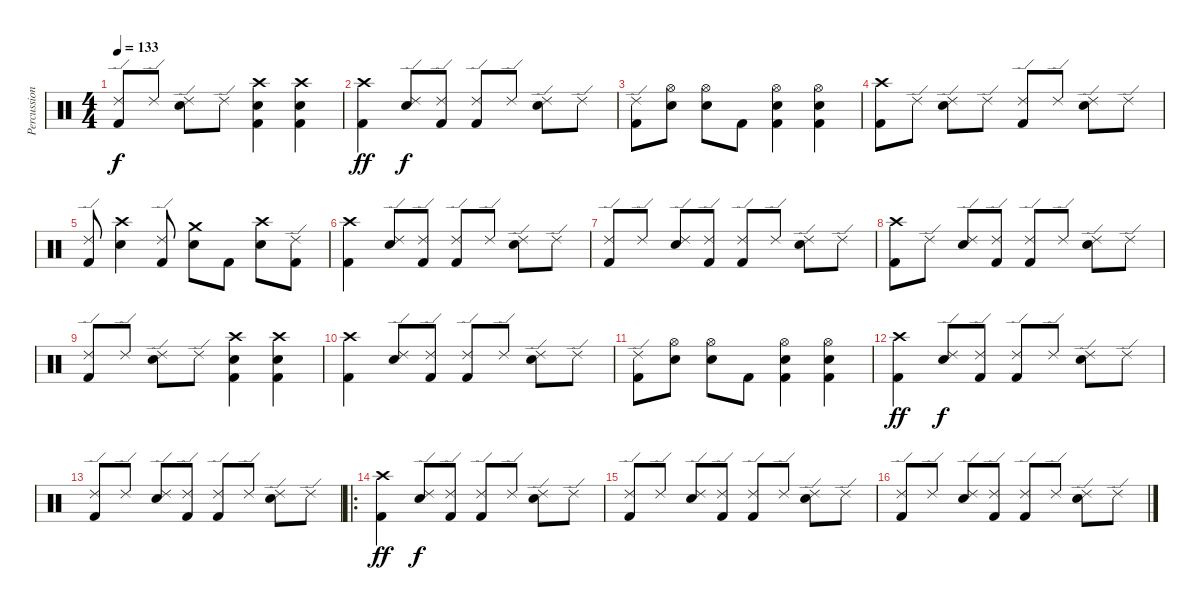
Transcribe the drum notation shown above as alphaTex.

\track ("Percussion" "Percussion") {instrument percussion}
\staff {score}
\articulation defaults
\ts (4 4)
\tempo 133
\clef neutral
\ks c
("Ride (edge) 2" "Kick (hit) 2").8{dy f} "Ride (edge) 2".8 ("Ride (edge) 2" "Snare (hit) 2").8 "Ride (edge) 2".8 ("Crash high (hit)" "Snare (hit) 2" "Kick (hit) 2").4 ("Crash high (hit)" "Snare (hit) 2" "Kick (hit) 2").4 |
("Crash high (hit)" "Kick (hit) 2").4{dy ff} ("Ride (edge) 2" "Snare (hit) 2").8{dy f} ("Ride (edge) 2" "Kick (hit) 2").8 ("Ride (edge) 2" "Kick (hit) 2").8 "Ride (edge) 2".8 ("Ride (edge) 2" "Snare (hit) 2").8 "Ride (edge) 2".8 |
("Ride (edge) 2" "Kick (hit) 2").8 ("Hi-Hat (open)" "Snare (hit) 2").8 ("Hi-Hat (open)" "Snare (hit) 2").8 "Kick (hit) 2".8 ("Hi-Hat (open)" "Snare (hit) 2" "Kick (hit) 2").4 ("Hi-Hat (open)" "Snare (hit) 2" "Kick (hit) 2").4 |
("Crash high (hit)" "Kick (hit) 2").8 "Ride (edge) 2".8 ("Ride (edge) 2" "Snare (hit) 2").8 "Ride (edge) 2".8 ("Ride (edge) 2" "Kick (hit) 2").8 "Ride (edge) 2".8 ("Ride (edge) 2" "Snare (hit) 2").8 "Ride (edge) 2".8 |
("Ride (edge) 2" "Kick (hit) 2").8 ("Crash high (hit)" "Snare (hit) 2").4 ("Ride (edge) 2" "Kick (hit) 2").8 ("Crash medium (hit)" "Snare (hit) 2").8 "Kick (hit) 2".8 ("Crash high (hit)" "Snare (hit) 2").8 ("Ride (edge) 2" "Kick (hit) 2").8 |
("Crash high (hit)" "Kick (hit) 2").4 ("Ride (edge) 2" "Snare (hit) 2").8 ("Ride (edge) 2" "Kick (hit) 2").8 ("Ride (edge) 2" "Kick (hit) 2").8 "Ride (edge) 2".8 ("Ride (edge) 2" "Snare (hit) 2").8 "Ride (edge) 2".8 |
("Ride (edge) 2" "Kick (hit) 2").8 "Ride (edge) 2".8 ("Ride (edge) 2" "Snare (hit) 2").8 ("Ride (edge) 2" "Kick (hit) 2").8 ("Ride (edge) 2" "Kick (hit) 2").8 "Ride (edge) 2".8 ("Ride (edge) 2" "Snare (hit) 2").8 "Ride (edge) 2".8 |
("Crash high (hit)" "Kick (hit) 2").8 "Ride (edge) 2".8 ("Ride (edge) 2" "Snare (hit) 2").8 ("Ride (edge) 2" "Kick (hit) 2").8 ("Ride (edge) 2" "Kick (hit) 2").8 "Ride (edge) 2".8 ("Ride (edge) 2" "Snare (hit) 2").8 "Ride (edge) 2".8 |
("Ride (edge) 2" "Kick (hit) 2").8 "Ride (edge) 2".8 ("Ride (edge) 2" "Snare (hit) 2").8 "Ride (edge) 2".8 ("Crash high (hit)" "Snare (hit) 2" "Kick (hit) 2").4 ("Crash high (hit)" "Snare (hit) 2" "Kick (hit) 2").4 |
("Crash high (hit)" "Kick (hit) 2").4 ("Ride (edge) 2" "Snare (hit) 2").8 ("Ride (edge) 2" "Kick (hit) 2").8 ("Ride (edge) 2" "Kick (hit) 2").8 "Ride (edge) 2".8 ("Ride (edge) 2" "Snare (hit) 2").8 "Ride (edge) 2".8 |
("Ride (edge) 2" "Kick (hit) 2").8 ("Hi-Hat (open)" "Snare (hit) 2").8 ("Hi-Hat (open)" "Snare (hit) 2").8 "Kick (hit) 2".8 ("Hi-Hat (open)" "Snare (hit) 2" "Kick (hit) 2").4 ("Hi-Hat (open)" "Snare (hit) 2" "Kick (hit) 2").4 |
("Crash high (hit)" "Kick (hit) 2").4{dy ff} ("Ride (edge) 2" "Snare (hit) 2").8{dy f} ("Ride (edge) 2" "Kick (hit) 2").8 ("Ride (edge) 2" "Kick (hit) 2").8 "Ride (edge) 2".8 ("Ride (edge) 2" "Snare (hit) 2").8 "Ride (edge) 2".8 |
("Ride (edge) 2" "Kick (hit) 2").8 "Ride (edge) 2".8 ("Ride (edge) 2" "Snare (hit) 2").8 ("Ride (edge) 2" "Kick (hit) 2").8 ("Ride (edge) 2" "Kick (hit) 2").8 "Ride (edge) 2".8 ("Ride (edge) 2" "Snare (hit) 2").8 "Ride (edge) 2".8 |
\ro
("Crash high (hit)" "Kick (hit) 2").4{dy ff} ("Ride (edge) 2" "Snare (hit) 2").8{dy f} ("Ride (edge) 2" "Kick (hit) 2").8 ("Ride (edge) 2" "Kick (hit) 2").8 "Ride (edge) 2".8 ("Ride (edge) 2" "Snare (hit) 2").8 "Ride (edge) 2".8 |
("Ride (edge) 2" "Kick (hit) 2").8 "Ride (edge) 2".8 ("Ride (edge) 2" "Snare (hit) 2").8 ("Ride (edge) 2" "Kick (hit) 2").8 ("Ride (edge) 2" "Kick (hit) 2").8 "Ride (edge) 2".8 ("Ride (edge) 2" "Snare (hit) 2").8 "Ride (edge) 2".8 |
("Ride (edge) 2" "Kick (hit) 2").8 "Ride (edge) 2".8 ("Ride (edge) 2" "Snare (hit) 2").8 ("Ride (edge) 2" "Kick (hit) 2").8 ("Ride (edge) 2" "Kick (hit) 2").8 "Ride (edge) 2".8 ("Ride (edge) 2" "Snare (hit) 2").8 "Ride (edge) 2".8
